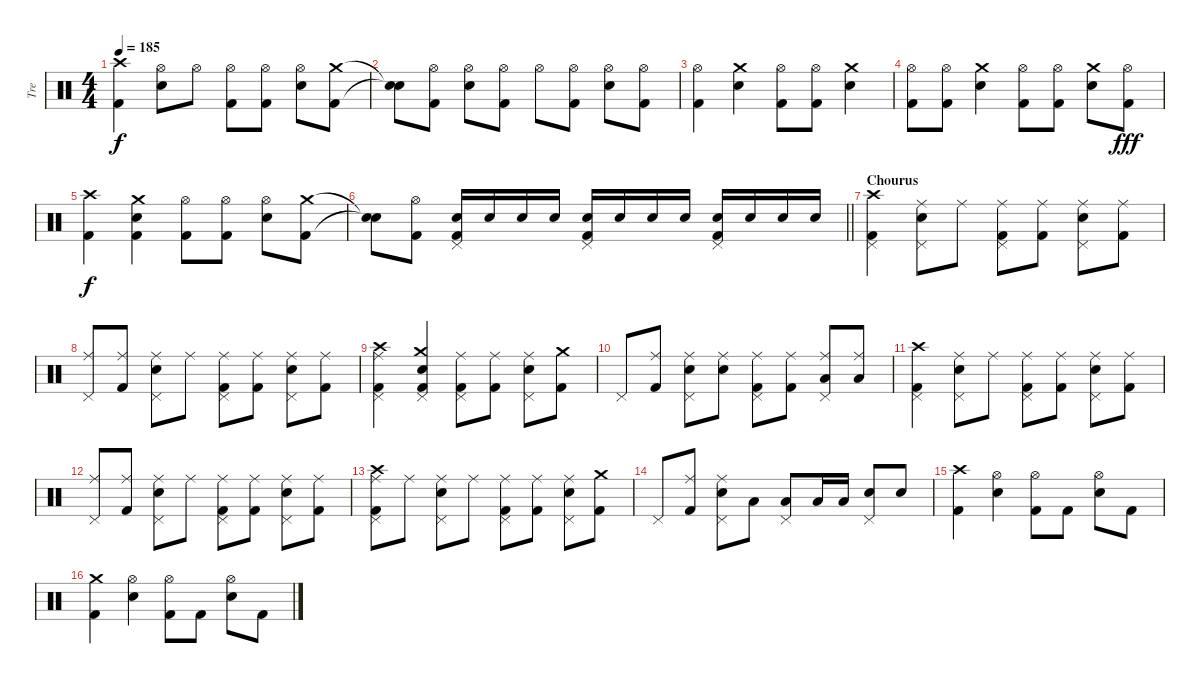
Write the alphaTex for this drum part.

\track ("Tre" "Tre") {instrument percussion}
\staff {score}
\articulation defaults
\ts (4 4)
\tempo 185
\clef neutral
\ks c
("Crash high (hit)" "Kick (hit) 2").4{dy f} ("Hi-Hat (open)" "Snare (hit) 2").8 "Hi-Hat (open)".8 ("Hi-Hat (open)" "Kick (hit) 2").8 ("Hi-Hat (open)" "Kick (hit) 2").8 ("Hi-Hat (open)" "Snare (hit) 2").8 ("Crash medium (hit)" "Kick (hit) 2").8 |
("Snare (hit)"{t} "Snare (hit)"{t}).8 ("Hi-Hat (open)" "Kick (hit) 2").8 ("Hi-Hat (open)" "Snare (hit) 2").8 ("Hi-Hat (open)" "Kick (hit) 2").8 "Hi-Hat (open)".8 ("Hi-Hat (open)" "Kick (hit) 2").8 ("Hi-Hat (open)" "Snare (hit) 2").8 ("Hi-Hat (open)" "Kick (hit) 2").8 |
("Hi-Hat (open)" "Kick (hit) 2").4 ("Crash medium (hit)" "Snare (hit) 2").4 ("Hi-Hat (open)" "Kick (hit) 2").8 ("Hi-Hat (open)" "Kick (hit) 2").8 ("Crash medium (hit)" "Snare (hit) 2").4 |
("Hi-Hat (open)" "Kick (hit) 2").8 ("Hi-Hat (open)" "Kick (hit) 2").8 ("Crash medium (hit)" "Snare (hit) 2").4 ("Hi-Hat (open)" "Kick (hit) 2").8 ("Hi-Hat (open)" "Kick (hit) 2").8 ("Crash medium (hit)" "Snare (hit) 2").8 ("Hi-Hat (open)" "Kick (hit) 2").8{dy fff} |
("Crash high (hit)" "Kick (hit) 2").4{dy f} ("Crash medium (hit)" "Snare (hit) 2" "Kick (hit) 2").4 ("Hi-Hat (open)" "Kick (hit) 2").8 ("Hi-Hat (open)" "Kick (hit) 2").8 ("Hi-Hat (open)" "Snare (hit) 2").8 ("Crash medium (hit)" "Kick (hit) 2").8 |
\barLineRight lightlight
("Snare (hit)"{t} "Snare (hit)"{t}).8 ("Hi-Hat (open)" "Kick (hit) 2").8 ("Snare (hit) 2" "Pedal Hi-Hat (hit)" "Kick (hit) 2").16 "Snare (hit) 2".16 "Snare (hit) 2".16 "Snare (hit) 2".16 ("Snare (hit) 2" "Pedal Hi-Hat (hit)" "Kick (hit) 2").16 "Snare (hit) 2".16 "Snare (hit) 2".16 "Snare (hit) 2".16 ("Snare (hit) 2" "Pedal Hi-Hat (hit)" "Kick (hit) 2").16 "Snare (hit) 2".16 "Snare (hit) 2".16 "Snare (hit) 2".16 |
\section ("" "Chourus")
("Crash high (hit)" "Pedal Hi-Hat (hit)" "Kick (hit) 2").4 ("Ride (middle)" "Snare (hit) 2" "Pedal Hi-Hat (hit)").8 "Ride (middle)".8 ("Ride (middle)" "Pedal Hi-Hat (hit)" "Kick (hit) 2").8 ("Ride (middle)" "Kick (hit) 2").8 ("Ride (middle)" "Snare (hit) 2" "Pedal Hi-Hat (hit)").8 ("Ride (middle)" "Kick (hit) 2").8 |
("Ride (middle)" "Pedal Hi-Hat (hit)").8 ("Ride (middle)" "Kick (hit) 2").8 ("Ride (middle)" "Snare (hit) 2" "Pedal Hi-Hat (hit)").8 "Ride (middle)".8 ("Ride (middle)" "Pedal Hi-Hat (hit)" "Kick (hit) 2").8 ("Ride (middle)" "Kick (hit) 2").8 ("Ride (middle)" "Snare (hit) 2" "Pedal Hi-Hat (hit)").8 ("Ride (middle)" "Kick (hit) 2").8 |
("Crash high (hit)" "Ride (middle)" "Pedal Hi-Hat (hit)" "Kick (hit) 2").4 ("Crash medium (hit)" "Snare (hit) 2" "Pedal Hi-Hat (hit)" "Kick (hit) 2").4 ("Ride (middle)" "Pedal Hi-Hat (hit)" "Kick (hit) 2").8 ("Ride (middle)" "Kick (hit) 2").8 ("Ride (middle)" "Snare (hit) 2" "Pedal Hi-Hat (hit)").8 ("Crash medium (hit)" "Kick (hit) 2").8 |
"Pedal Hi-Hat (hit)".8 ("Ride (middle)" "Kick (hit) 2").8 ("Ride (middle)" "Snare (hit) 2" "Pedal Hi-Hat (hit)").8 ("Ride (middle)" "Snare (hit) 2").8 ("Ride (middle)" "Pedal Hi-Hat (hit)" "Kick (hit) 2").8 ("Ride (middle)" "Kick (hit) 2").8 ("Ride (middle)" "Low Tom (hit)" "Pedal Hi-Hat (hit)").8 ("Ride (middle)" "Low Tom (hit)").8 |
("Crash high (hit)" "Pedal Hi-Hat (hit)" "Kick (hit) 2").4 ("Ride (middle)" "Snare (hit) 2" "Pedal Hi-Hat (hit)").8 "Ride (middle)".8 ("Ride (middle)" "Pedal Hi-Hat (hit)" "Kick (hit) 2").8 ("Ride (middle)" "Kick (hit) 2").8 ("Ride (middle)" "Snare (hit) 2" "Pedal Hi-Hat (hit)").8 ("Ride (middle)" "Kick (hit) 2").8 |
("Ride (middle)" "Pedal Hi-Hat (hit)").8 ("Ride (middle)" "Kick (hit) 2").8 ("Ride (middle)" "Snare (hit) 2" "Pedal Hi-Hat (hit)").8 "Ride (middle)".8 ("Ride (middle)" "Pedal Hi-Hat (hit)" "Kick (hit) 2").8 ("Ride (middle)" "Kick (hit) 2").8 ("Ride (middle)" "Snare (hit) 2" "Pedal Hi-Hat (hit)").8 ("Ride (middle)" "Kick (hit) 2").8 |
("Crash high (hit)" "Ride (middle)" "Pedal Hi-Hat (hit)" "Kick (hit) 2").8 "Ride (middle)".8 ("Ride (middle)" "Snare (hit) 2" "Pedal Hi-Hat (hit)").8 "Ride (middle)".8 ("Ride (middle)" "Pedal Hi-Hat (hit)" "Kick (hit) 2").8 ("Ride (middle)" "Kick (hit) 2").8 ("Ride (middle)" "Snare (hit) 2" "Pedal Hi-Hat (hit)").8 ("Crash medium (hit)" "Kick (hit) 2").8 |
"Pedal Hi-Hat (hit)".8 ("Ride (middle)" "Kick (hit) 2").8 ("Ride (middle)" "Snare (hit) 2" "Pedal Hi-Hat (hit)").8 "Low Tom (hit)".8 ("Low Floor Tom (hit)" "Pedal Hi-Hat (hit)").8 "Low Floor Tom (hit)".16 "Low Floor Tom (hit)".16 ("Snare (hit) 2" "Pedal Hi-Hat (hit)").8 "Snare (hit) 2".8 |
("Crash high (hit)" "Kick (hit) 2").4 ("Hi-Hat (open)" "Snare (hit) 2").4 ("Hi-Hat (open)" "Kick (hit) 2").8 "Kick (hit) 2".8 ("Hi-Hat (open)" "Snare (hit) 2").8 "Kick (hit) 2".8 |
("Crash medium (hit)" "Kick (hit) 2").4 ("Hi-Hat (open)" "Snare (hit) 2").4 ("Hi-Hat (open)" "Kick (hit) 2").8 "Kick (hit) 2".8 ("Hi-Hat (open)" "Snare (hit) 2").8 "Kick (hit) 2".8
